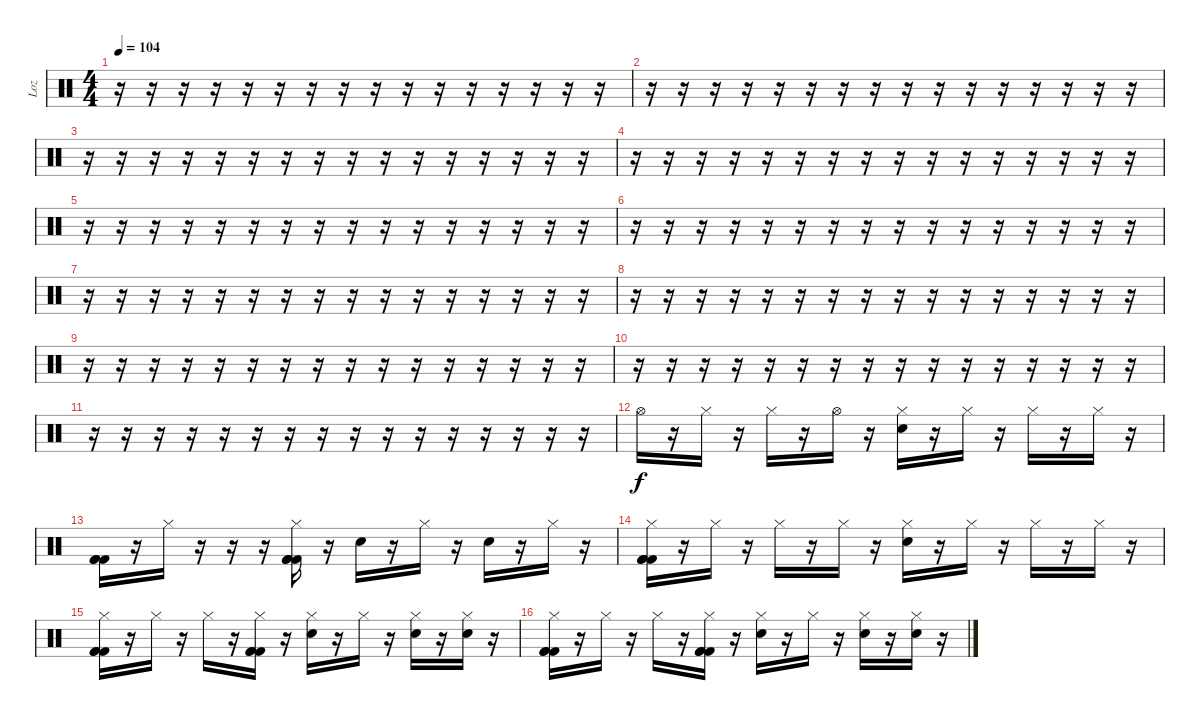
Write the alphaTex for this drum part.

\track ("Loz" "Loz") {instrument percussion}
\staff {score}
\articulation defaults
\ts (4 4)
\tempo 104
\clef neutral
\ks c
r.16{dy f} r.16 r.16 r.16 r.16 r.16 r.16 r.16 r.16 r.16 r.16 r.16 r.16 r.16 r.16 r.16 |
r.16 r.16 r.16 r.16 r.16 r.16 r.16 r.16 r.16 r.16 r.16 r.16 r.16 r.16 r.16 r.16 |
r.16 r.16 r.16 r.16 r.16 r.16 r.16 r.16 r.16 r.16 r.16 r.16 r.16 r.16 r.16 r.16 |
r.16 r.16 r.16 r.16 r.16 r.16 r.16 r.16 r.16 r.16 r.16 r.16 r.16 r.16 r.16 r.16 |
r.16 r.16 r.16 r.16 r.16 r.16 r.16 r.16 r.16 r.16 r.16 r.16 r.16 r.16 r.16 r.16 |
r.16 r.16 r.16 r.16 r.16 r.16 r.16 r.16 r.16 r.16 r.16 r.16 r.16 r.16 r.16 r.16 |
r.16 r.16 r.16 r.16 r.16 r.16 r.16 r.16 r.16 r.16 r.16 r.16 r.16 r.16 r.16 r.16 |
r.16 r.16 r.16 r.16 r.16 r.16 r.16 r.16 r.16 r.16 r.16 r.16 r.16 r.16 r.16 r.16 |
r.16 r.16 r.16 r.16 r.16 r.16 r.16 r.16 r.16 r.16 r.16 r.16 r.16 r.16 r.16 r.16 |
r.16 r.16 r.16 r.16 r.16 r.16 r.16 r.16 r.16 r.16 r.16 r.16 r.16 r.16 r.16 r.16 |
r.16 r.16 r.16 r.16 r.16 r.16 r.16 r.16 r.16 r.16 r.16 r.16 r.16 r.16 r.16 r.16 |
"Hi-Hat (open)".16 r.16 "Hi-Hat (closed)".16 r.16 "Hi-Hat (closed)".16 r.16 "Hi-Hat (open)".16 r.16 ("Hi-Hat (closed)" "Electric Snare (hit)").16 r.16 "Hi-Hat (closed)".16 r.16 "Hi-Hat (closed)".16 r.16 "Hi-Hat (closed)".16 r.16 |
("Kick (hit) 2" "Kick (hit) 2" "Kick (hit) 2").16 r.16 "Hi-Hat (closed)".16 r.16 r.16 r.16 ("Hi-Hat (closed)" "Kick (hit) 2" "Kick (hit) 2" "Kick (hit) 2").16 r.16 "Electric Snare (hit)".16 r.16 "Hi-Hat (closed)".16 r.16 "Electric Snare (hit)".16 r.16 "Hi-Hat (closed)".16 r.16 |
("Hi-Hat (closed)" "Kick (hit) 2" "Kick (hit) 2" "Kick (hit) 2").16 r.16 "Hi-Hat (closed)".16 r.16 "Hi-Hat (closed)".16 r.16 "Hi-Hat (closed)".16 r.16 ("Hi-Hat (closed)" "Electric Snare (hit)").16 r.16 "Hi-Hat (closed)".16 r.16 "Hi-Hat (closed)".16 r.16 "Hi-Hat (closed)".16 r.16 |
("Hi-Hat (closed)" "Kick (hit) 2" "Kick (hit) 2" "Kick (hit) 2").16 r.16 "Hi-Hat (closed)".16 r.16 "Hi-Hat (closed)".16 r.16 ("Hi-Hat (closed)" "Kick (hit) 2" "Kick (hit) 2" "Kick (hit) 2").16 r.16 ("Hi-Hat (closed)" "Electric Snare (hit)").16 r.16 "Hi-Hat (closed)".16 r.16 ("Hi-Hat (closed)" "Electric Snare (hit)").16 r.16 ("Hi-Hat (closed)" "Electric Snare (hit)").16 r.16 |
("Hi-Hat (closed)" "Kick (hit) 2" "Kick (hit) 2" "Kick (hit) 2").16 r.16 "Hi-Hat (closed)".16 r.16 "Hi-Hat (closed)".16 r.16 ("Hi-Hat (closed)" "Kick (hit) 2" "Kick (hit) 2" "Kick (hit) 2").16 r.16 ("Hi-Hat (closed)" "Electric Snare (hit)").16 r.16 "Hi-Hat (closed)".16 r.16 ("Hi-Hat (closed)" "Electric Snare (hit)").16 r.16 ("Hi-Hat (closed)" "Electric Snare (hit)").16 r.16
